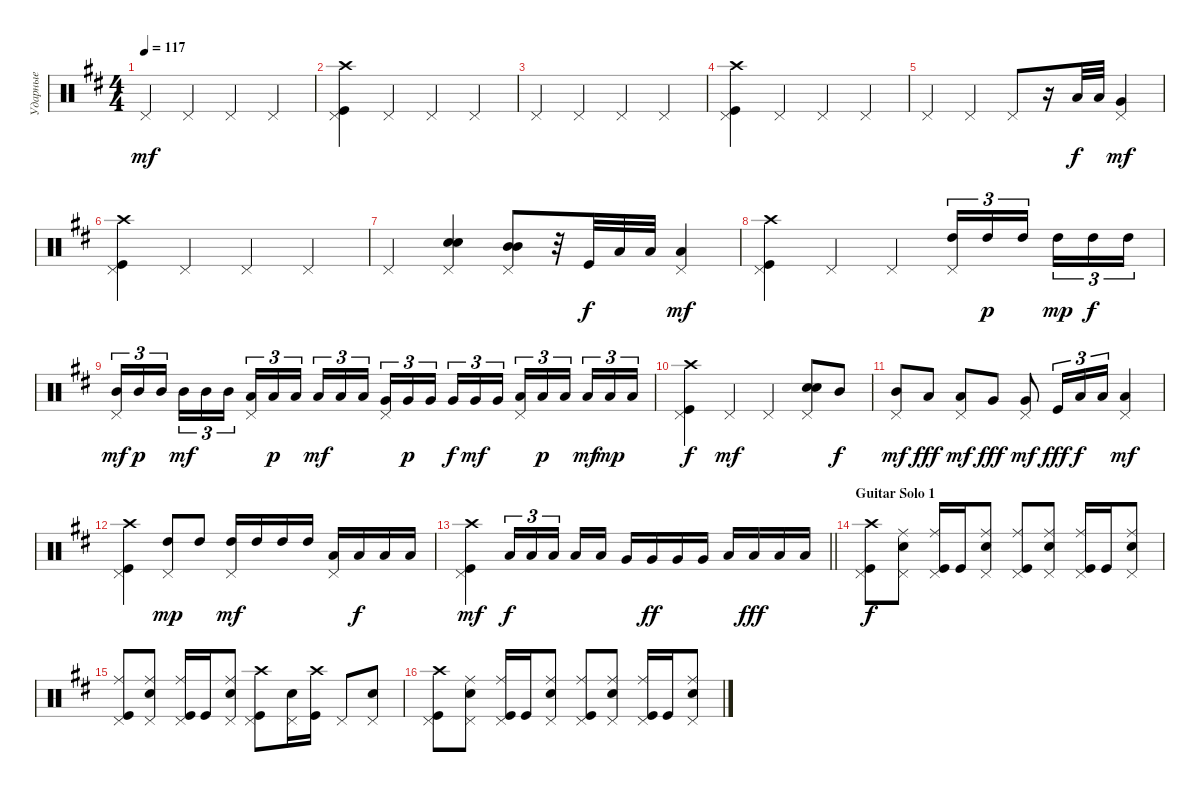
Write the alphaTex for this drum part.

\track ("Ударные" "Ударные") {instrument percussion}
\staff {score}
\articulation defaults
\ts (4 4)
\tempo 117
\clef neutral
\ks d "Pedal Hi-Hat (hit)".4{dy mf} "Pedal Hi-Hat (hit)".4 "Pedal Hi-Hat (hit)".4 "Pedal Hi-Hat (hit)".4
|
("Kick (hit)" "Crash high (hit)" "Pedal Hi-Hat (hit)").4 "Pedal Hi-Hat (hit)".4 "Pedal Hi-Hat (hit)".4 "Pedal Hi-Hat (hit)".4 |
"Pedal Hi-Hat (hit)".4 "Pedal Hi-Hat (hit)".4 "Pedal Hi-Hat (hit)".4 "Pedal Hi-Hat (hit)".4 |
("Kick (hit)" "Crash high (hit)" "Pedal Hi-Hat (hit)").4 "Pedal Hi-Hat (hit)".4 "Pedal Hi-Hat (hit)".4 "Pedal Hi-Hat (hit)".4 |
"Pedal Hi-Hat (hit)".4 "Pedal Hi-Hat (hit)".4 "Pedal Hi-Hat (hit)".8 r.16 "Low Tom (hit)".32{dy f} "Low Tom (hit)".32 ("Very Low Tom (hit)" "Pedal Hi-Hat (hit)").4{dy mf} |
("Kick (hit)" "Crash high (hit)" "Pedal Hi-Hat (hit)").4 "Pedal Hi-Hat (hit)".4 "Pedal Hi-Hat (hit)".4 "Pedal Hi-Hat (hit)".4 |
"Pedal Hi-Hat (hit)".4 ("Snare (hit) 2" "Snare (hit) 2" "Pedal Hi-Hat (hit)").4{bd 240} ("Mid Tom (hit)" "Mid Tom (hit)" "Pedal Hi-Hat (hit)").8{bd 240} r.32 "Kick (hit)".32{dy f} "Low Tom (hit)".32 "Low Tom (hit)".32 ("Low Tom (hit)" "Pedal Hi-Hat (hit)").4{dy mf} |
("Kick (hit)" "Crash high (hit)" "Pedal Hi-Hat (hit)").4 "Pedal Hi-Hat (hit)".4 "Pedal Hi-Hat (hit)".4 ("High Tom (hit)" "Pedal Hi-Hat (hit)").16{tu (3 2) bd 240} "High Tom (hit)".16{tu (3 2) dy p} "High Tom (hit)".16{tu (3 2) beam splitsecondary} "High Tom (hit)".16{tu (3 2) dy mp} "High Tom (hit)".16{tu (3 2) dy f} "High Tom (hit)".16{tu (3 2)} |
("Mid Tom (hit)" "Pedal Hi-Hat (hit)").16{tu (3 2) bd 240 dy mf} "Mid Tom (hit)".16{tu (3 2) dy p} "Mid Tom (hit)".16{tu (3 2) beam splitsecondary} "Mid Tom (hit)".16{tu (3 2) dy mf} "Mid Tom (hit)".16{tu (3 2)} "Mid Tom (hit)".16{tu (3 2)} ("Low Tom (hit)" "Pedal Hi-Hat (hit)").16{tu (3 2)} "Low Tom (hit)".16{tu (3 2) dy p} "Low Tom (hit)".16{tu (3 2) beam splitsecondary} "Low Tom (hit)".16{tu (3 2) dy mf} "Low Tom (hit)".16{tu (3 2)} "Low Tom (hit)".16{tu (3 2)} ("Very Low Tom (hit)" "Pedal Hi-Hat (hit)").16{tu (3 2)} "Very Low Tom (hit)".16{tu (3 2) dy p} "Very Low Tom (hit)".16{tu (3 2) beam splitsecondary} "Very Low Tom (hit)".16{tu (3 2) dy f} "Very Low Tom (hit)".16{tu (3 2) dy mf} "Very Low Tom (hit)".16{tu (3 2)} ("Low Floor Tom (hit)" "Pedal Hi-Hat (hit)").16{tu (3 2)} "Low Floor Tom (hit)".16{tu (3 2) dy p} "Low Floor Tom (hit)".16{tu (3 2) beam splitsecondary} "Low Floor Tom (hit)".16{tu (3 2) dy mf} "Low Floor Tom (hit)".16{tu (3 2) dy mp} "Low Floor Tom (hit)".16{tu (3 2)} |
("Pedal Hi-Hat (hit)" "Kick (hit)" "Crash high (hit)").4{dy f} "Pedal Hi-Hat (hit)".4{dy mf} "Pedal Hi-Hat (hit)".4 ("Snare (hit) 2" "Snare (hit) 2" "Pedal Hi-Hat (hit)").8{bd 240} "Mid Tom (hit)".8{dy f} |
("Mid Tom (hit)" "Pedal Hi-Hat (hit)").8{dy mf} "Low Tom (hit)".8{dy fff} ("Low Tom (hit)" "Pedal Hi-Hat (hit)").8{dy mf} "Very Low Tom (hit)".8{dy fff} ("Very Low Tom (hit)" "Pedal Hi-Hat (hit)").8{dy mf} "Kick (hit)".16{tu (3 2) dy fff} "Low Tom (hit)".16{tu (3 2) dy f} "Low Tom (hit)".16{tu (3 2)} ("Low Tom (hit)" "Pedal Hi-Hat (hit)").4{dy mf} |
("Kick (hit)" "Crash high (hit)" "Pedal Hi-Hat (hit)").4 ("High Tom (hit)" "Pedal Hi-Hat (hit)").8{dy mp} "High Tom (hit)".8 ("High Tom (hit)" "Pedal Hi-Hat (hit)").16{dy mf} "High Tom (hit)".16 "High Tom (hit)".16 "High Tom (hit)".16 ("Low Tom (hit)" "Pedal Hi-Hat (hit)").16 "Low Tom (hit)".16{dy f} "Low Tom (hit)".16 "Low Tom (hit)".16 |
\barLineRight lightlight
("Kick (hit)" "Crash high (hit)" "Pedal Hi-Hat (hit)").4{dy mf} "Low Tom (hit)".16{tu (3 2) dy f} "Low Tom (hit)".16{tu (3 2)} "Low Tom (hit)".16{tu (3 2) beam splitsecondary} "Low Tom (hit)".16 "Low Tom (hit)".16 "Very Low Tom (hit)".16 "Very Low Tom (hit)".16{dy ff} "Very Low Tom (hit)".16 "Very Low Tom (hit)".16 "Low Floor Tom (hit)".16 "Low Floor Tom (hit)".16{dy fff} "Low Floor Tom (hit)".16 "Low Floor Tom (hit)".16 |
\section ("" "Guitar Solo 1")
("Kick (hit)" "Crash high (hit)" "Pedal Hi-Hat (hit)").8{dy f} ("Snare (hit) 2" "Pedal Hi-Hat (hit)" "Ride (middle)").8 ("Kick (hit)" "Pedal Hi-Hat (hit)" "Ride (middle)").16 "Kick (hit)".16 ("Snare (hit) 2" "Pedal Hi-Hat (hit)" "Ride (middle)").8 ("Kick (hit)" "Pedal Hi-Hat (hit)" "Ride (middle)").8 ("Snare (hit) 2" "Pedal Hi-Hat (hit)" "Ride (middle)").8 ("Kick (hit)" "Pedal Hi-Hat (hit)" "Ride (middle)").16 "Kick (hit)".16 ("Snare (hit) 2" "Pedal Hi-Hat (hit)" "Ride (middle)").8 |
("Kick (hit)" "Ride (middle)" "Pedal Hi-Hat (hit)").8 ("Snare (hit) 2" "Ride (middle)" "Pedal Hi-Hat (hit)").8 ("Kick (hit)" "Ride (middle)" "Pedal Hi-Hat (hit)").16 "Kick (hit)".16 ("Snare (hit) 2" "Ride (middle)" "Pedal Hi-Hat (hit)").8 ("Kick (hit)" "Crash high (hit)" "Pedal Hi-Hat (hit)").8 ("Snare (hit) 2" "Pedal Hi-Hat (hit)").16 ("Kick (hit)" "Crash high (hit)").16 "Pedal Hi-Hat (hit)".8 ("Snare (hit) 2" "Pedal Hi-Hat (hit)").8 |
("Kick (hit)" "Crash high (hit)" "Pedal Hi-Hat (hit)").8 ("Snare (hit) 2" "Pedal Hi-Hat (hit)" "Ride (middle)").8 ("Kick (hit)" "Pedal Hi-Hat (hit)" "Ride (middle)").16 "Kick (hit)".16 ("Snare (hit) 2" "Pedal Hi-Hat (hit)" "Ride (middle)").8 ("Kick (hit)" "Pedal Hi-Hat (hit)" "Ride (middle)").8 ("Snare (hit) 2" "Pedal Hi-Hat (hit)" "Ride (middle)").8 ("Kick (hit)" "Pedal Hi-Hat (hit)" "Ride (middle)").16 "Kick (hit)".16 ("Snare (hit) 2" "Pedal Hi-Hat (hit)" "Ride (middle)").8
